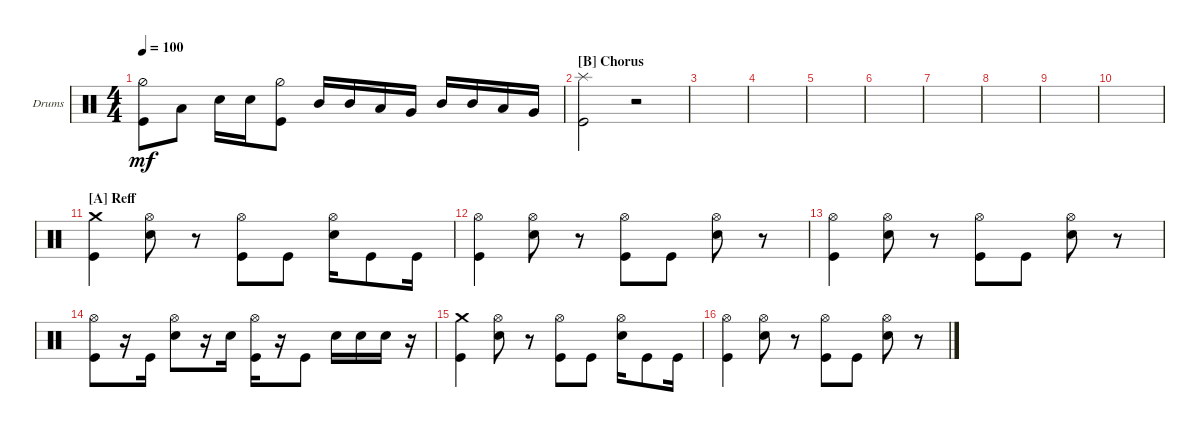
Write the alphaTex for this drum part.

\defaultSystemsLayout 4
\bracketExtendMode groupsimilarinstruments
\firstSystemTrackNameOrientation horizontal
\otherSystemsTrackNameOrientation horizontal
\track ("Drumkit" "Drums") {instrument percussion}
\staff {score}
\articulation defaults
\ts (4 4)
\tempo 100
\clef neutral
\ks c
("Kick (hit)" "Hi-Hat (half)").8{dy mf} "Low Tom (hit)".8 "Snare (hit) 2".16 "Snare (hit) 2".16 ("Kick (hit)" "Hi-Hat (half)").8 "Mid Tom (hit)".16 "Mid Tom (hit)".16 "Low Tom (hit)".16 "Very Low Tom (hit)".16 "Mid Tom (hit)".16 "Mid Tom (hit)".16 "Low Tom (hit)".16 "Very Low Tom (hit)".16 |
\section ("B" "Chorus")
("Kick (hit)" "Splash (hit)").2 r.2 |
|
|
|
|
|
|
|
|
\section ("A" "Reff")
("Kick (hit)" "Crash medium (hit)").4 ("Snare (hit) 2" "Hi-Hat (open)").8 r.8 ("Hi-Hat (open)" "Kick (hit)").8 "Kick (hit)".8 ("Snare (hit) 2" "Hi-Hat (open)").16 "Kick (hit)".8 "Kick (hit)".16 |
("Kick (hit)" "Hi-Hat (open)").4 ("Snare (hit) 2" "Hi-Hat (open)").8 r.8 ("Kick (hit)" "Hi-Hat (open)").8 "Kick (hit)".8 ("Snare (hit) 2" "Hi-Hat (open)").8 r.8 |
("Kick (hit)" "Hi-Hat (open)").4 ("Snare (hit) 2" "Hi-Hat (open)").8 r.8 ("Kick (hit)" "Hi-Hat (open)").8 "Kick (hit)".8 ("Snare (hit) 2" "Hi-Hat (open)").8 r.8 |
("Kick (hit)" "Hi-Hat (open)").8 r.16 "Kick (hit)".16 ("Snare (hit) 2" "Hi-Hat (open)").8 r.16 "Snare (hit) 2".16 ("Kick (hit)" "Hi-Hat (open)").16 r.16 "Kick (hit)".8 "Snare (hit) 2".16 "Snare (hit) 2".16 "Snare (hit) 2".16 r.16 |
("Kick (hit)" "Crash medium (hit)").4 ("Snare (hit) 2" "Hi-Hat (open)").8 r.8 ("Hi-Hat (open)" "Kick (hit)").8 "Kick (hit)".8 ("Snare (hit) 2" "Hi-Hat (open)").16 "Kick (hit)".8 "Kick (hit)".16 |
("Kick (hit)" "Hi-Hat (open)").4 ("Snare (hit) 2" "Hi-Hat (open)").8 r.8 ("Kick (hit)" "Hi-Hat (open)").8 "Kick (hit)".8 ("Snare (hit) 2" "Hi-Hat (open)").8 r.8
